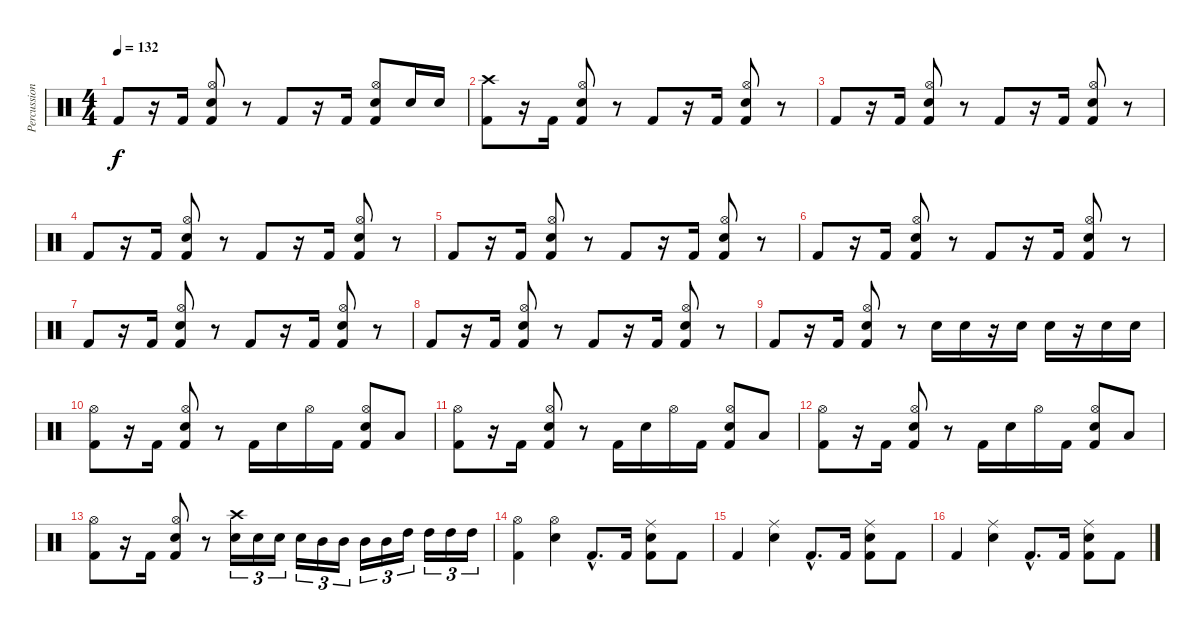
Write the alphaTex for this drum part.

\track ("Percussion" "Percussion") {instrument percussion}
\staff {score}
\articulation defaults
\ts (4 4)
\tempo 132
\clef neutral
\ks c "Kick (hit) 2".8{dy f}
r.16 "Kick (hit) 2".16 ("Hi-Hat (open)" "Snare (hit) 2" "Kick (hit) 2").8 r.8 "Kick (hit) 2".8 r.16 "Kick (hit) 2".16 ("Hi-Hat (open)" "Snare (hit) 2" "Kick (hit) 2").8 "Snare (hit) 2".16 "Snare (hit) 2".16 |
("Crash high (hit)" "Kick (hit) 2").8 r.16 "Kick (hit) 2".16 ("Hi-Hat (open)" "Snare (hit) 2" "Kick (hit) 2").8 r.8 "Kick (hit) 2".8 r.16 "Kick (hit) 2".16 ("Hi-Hat (open)" "Snare (hit) 2" "Kick (hit) 2").8 r.8 |
"Kick (hit) 2".8 r.16 "Kick (hit) 2".16 ("Hi-Hat (open)" "Snare (hit) 2" "Kick (hit) 2").8 r.8 "Kick (hit) 2".8 r.16 "Kick (hit) 2".16 ("Hi-Hat (open)" "Snare (hit) 2" "Kick (hit) 2").8 r.8 |
"Kick (hit) 2".8 r.16 "Kick (hit) 2".16 ("Hi-Hat (open)" "Snare (hit) 2" "Kick (hit) 2").8 r.8 "Kick (hit) 2".8 r.16 "Kick (hit) 2".16 ("Hi-Hat (open)" "Snare (hit) 2" "Kick (hit) 2").8 r.8 |
"Kick (hit) 2".8 r.16 "Kick (hit) 2".16 ("Hi-Hat (open)" "Snare (hit) 2" "Kick (hit) 2").8 r.8 "Kick (hit) 2".8 r.16 "Kick (hit) 2".16 ("Hi-Hat (open)" "Snare (hit) 2" "Kick (hit) 2").8 r.8 |
"Kick (hit) 2".8 r.16 "Kick (hit) 2".16 ("Hi-Hat (open)" "Snare (hit) 2" "Kick (hit) 2").8 r.8 "Kick (hit) 2".8 r.16 "Kick (hit) 2".16 ("Hi-Hat (open)" "Snare (hit) 2" "Kick (hit) 2").8 r.8 |
"Kick (hit) 2".8 r.16 "Kick (hit) 2".16 ("Hi-Hat (open)" "Snare (hit) 2" "Kick (hit) 2").8 r.8 "Kick (hit) 2".8 r.16 "Kick (hit) 2".16 ("Hi-Hat (open)" "Snare (hit) 2" "Kick (hit) 2").8 r.8 |
"Kick (hit) 2".8 r.16 "Kick (hit) 2".16 ("Hi-Hat (open)" "Snare (hit) 2" "Kick (hit) 2").8 r.8 "Kick (hit) 2".8 r.16 "Kick (hit) 2".16 ("Hi-Hat (open)" "Snare (hit) 2" "Kick (hit) 2").8 r.8 |
"Kick (hit) 2".8 r.16 "Kick (hit) 2".16 ("Hi-Hat (open)" "Snare (hit) 2" "Kick (hit) 2").8 r.8 "Electric Snare (hit)".16 "Electric Snare (hit)".16 r.16 "Electric Snare (hit)".16 "Electric Snare (hit)".16 r.16 "Electric Snare (hit)".16 "Electric Snare (hit)".16 |
("Hi-Hat (open)" "Kick (hit) 2").8 r.16 "Kick (hit) 2".16 ("Hi-Hat (open)" "Snare (hit) 2" "Kick (hit) 2").8 r.8 "Kick (hit) 2".16 "Snare (hit) 2".16 "Hi-Hat (open)".16 "Kick (hit) 2".16 ("Hi-Hat (open)" "Snare (hit) 2" "Kick (hit) 2").8 "Low Floor Tom (hit)".8 |
("Hi-Hat (open)" "Kick (hit) 2").8 r.16 "Kick (hit) 2".16 ("Hi-Hat (open)" "Snare (hit) 2" "Kick (hit) 2").8 r.8 "Kick (hit) 2".16 "Snare (hit) 2".16 "Hi-Hat (open)".16 "Kick (hit) 2".16 ("Hi-Hat (open)" "Snare (hit) 2" "Kick (hit) 2").8 "Low Floor Tom (hit)".8 |
("Hi-Hat (open)" "Kick (hit) 2").8 r.16 "Kick (hit) 2".16 ("Hi-Hat (open)" "Snare (hit) 2" "Kick (hit) 2").8 r.8 "Kick (hit) 2".16 "Snare (hit) 2".16 "Hi-Hat (open)".16 "Kick (hit) 2".16 ("Hi-Hat (open)" "Snare (hit) 2" "Kick (hit) 2").8 "Low Floor Tom (hit)".8 |
("Hi-Hat (open)" "Kick (hit) 2").8 r.16 "Kick (hit) 2".16 ("Hi-Hat (open)" "Snare (hit) 2" "Kick (hit) 2").8 r.8 ("Crash high (hit)" "Snare (hit) 2").16{tu (3 2)} "Snare (hit) 2".16{tu (3 2)} "Snare (hit) 2".16{tu (3 2)} "Snare (hit) 2".16{tu (3 2)} "Mid Tom (hit)".16{tu (3 2)} "Mid Tom (hit)".16{tu (3 2)} "Mid Tom (hit)".16{tu (3 2)} "Mid Tom (hit)".16{tu (3 2)} "High Tom (hit)".16{tu (3 2)} "High Tom (hit)".16{tu (3 2)} "High Tom (hit)".16{tu (3 2)} "High Tom (hit)".16{tu (3 2)} |
("Hi-Hat (open)" "Kick (hit) 2").4 ("Hi-Hat (open)" "Snare (hit) 2").4 "Kick (hit) 2"{hac}.8{d} "Kick (hit) 2".16 ("Ride (middle)" "Snare (hit) 2" "Kick (hit) 2").8 "Kick (hit) 2".8 |
"Kick (hit) 2".4 ("Ride (middle)" "Snare (hit) 2").4 "Kick (hit) 2"{hac}.8{d} "Kick (hit) 2".16 ("Ride (middle)" "Snare (hit) 2" "Kick (hit) 2").8 "Kick (hit) 2".8 |
"Kick (hit) 2".4 ("Ride (middle)" "Snare (hit) 2").4 "Kick (hit) 2"{hac}.8{d} "Kick (hit) 2".16 ("Ride (middle)" "Snare (hit) 2" "Kick (hit) 2").8 "Kick (hit) 2".8
